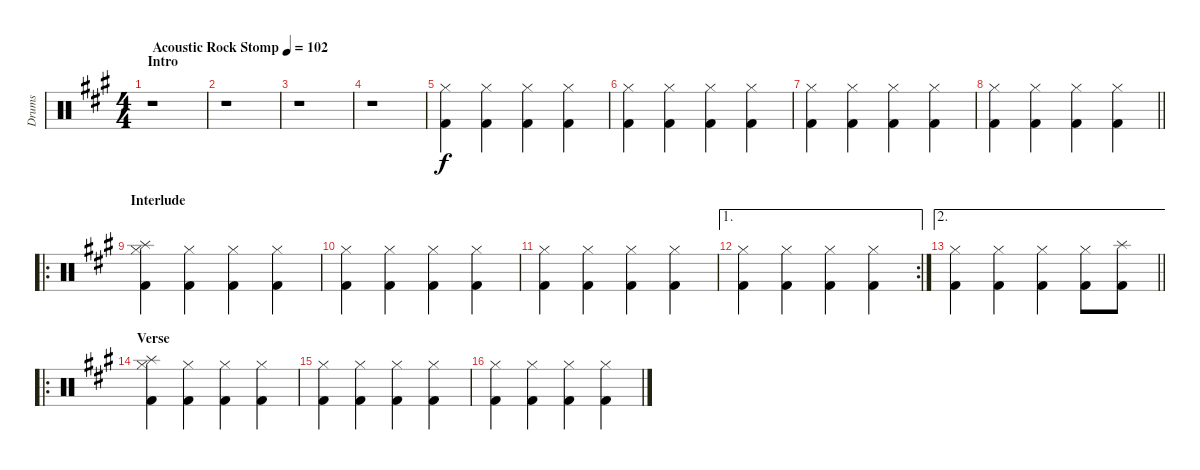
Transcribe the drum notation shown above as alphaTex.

\track ("Drums" "Drums") {instrument percussion}
\staff {score}
\articulation defaults
\ts (4 4)
\section ("" "Intro")
\tempo (102 "Acoustic Rock Stomp")
\clef neutral
\ks a
r.1{dy f} |
r.1 |
r.1 |
r.1 |
("Hi-Hat (closed)" "Kick (hit) 2").4 ("Hi-Hat (closed)" "Kick (hit) 2").4 ("Hi-Hat (closed)" "Kick (hit) 2").4 ("Hi-Hat (closed)" "Kick (hit) 2").4 |
("Hi-Hat (closed)" "Kick (hit) 2").4 ("Hi-Hat (closed)" "Kick (hit) 2").4 ("Hi-Hat (closed)" "Kick (hit) 2").4 ("Hi-Hat (closed)" "Kick (hit) 2").4 |
("Hi-Hat (closed)" "Kick (hit) 2").4 ("Hi-Hat (closed)" "Kick (hit) 2").4 ("Hi-Hat (closed)" "Kick (hit) 2").4 ("Hi-Hat (closed)" "Kick (hit) 2").4 |
\barLineRight lightlight
("Hi-Hat (closed)" "Kick (hit) 2").4 ("Hi-Hat (closed)" "Kick (hit) 2").4 ("Hi-Hat (closed)" "Kick (hit) 2").4 ("Hi-Hat (closed)" "Kick (hit) 2").4 |
\ro
\section ("" "Interlude")
("Hi-Hat (closed)" "Splash (hit)" "Kick (hit) 2").4 ("Hi-Hat (closed)" "Kick (hit) 2").4 ("Hi-Hat (closed)" "Kick (hit) 2").4 ("Hi-Hat (closed)" "Kick (hit) 2").4 |
("Hi-Hat (closed)" "Kick (hit) 2").4 ("Hi-Hat (closed)" "Kick (hit) 2").4 ("Hi-Hat (closed)" "Kick (hit) 2").4 ("Hi-Hat (closed)" "Kick (hit) 2").4 |
("Hi-Hat (closed)" "Kick (hit) 2").4 ("Hi-Hat (closed)" "Kick (hit) 2").4 ("Hi-Hat (closed)" "Kick (hit) 2").4 ("Hi-Hat (closed)" "Kick (hit) 2").4 |
\ae 1
\rc 2
("Hi-Hat (closed)" "Kick (hit) 2").4 ("Hi-Hat (closed)" "Kick (hit) 2").4 ("Hi-Hat (closed)" "Kick (hit) 2").4 ("Hi-Hat (closed)" "Kick (hit) 2").4 |
\ae 2
\barLineRight lightlight
("Hi-Hat (closed)" "Kick (hit) 2").4 ("Hi-Hat (closed)" "Kick (hit) 2").4 ("Hi-Hat (closed)" "Kick (hit) 2").4 ("Hi-Hat (closed)" "Kick (hit) 2").8 ("Splash (hit)" "Kick (hit) 2").8 |
\ro
\section ("" "Verse")
("Hi-Hat (closed)" "Splash (hit)" "Kick (hit) 2").4 ("Hi-Hat (closed)" "Kick (hit) 2").4 ("Hi-Hat (closed)" "Kick (hit) 2").4 ("Hi-Hat (closed)" "Kick (hit) 2").4 |
("Hi-Hat (closed)" "Kick (hit) 2").4 ("Hi-Hat (closed)" "Kick (hit) 2").4 ("Hi-Hat (closed)" "Kick (hit) 2").4 ("Hi-Hat (closed)" "Kick (hit) 2").4 |
("Hi-Hat (closed)" "Kick (hit) 2").4 ("Hi-Hat (closed)" "Kick (hit) 2").4 ("Hi-Hat (closed)" "Kick (hit) 2").4 ("Hi-Hat (closed)" "Kick (hit) 2").4
